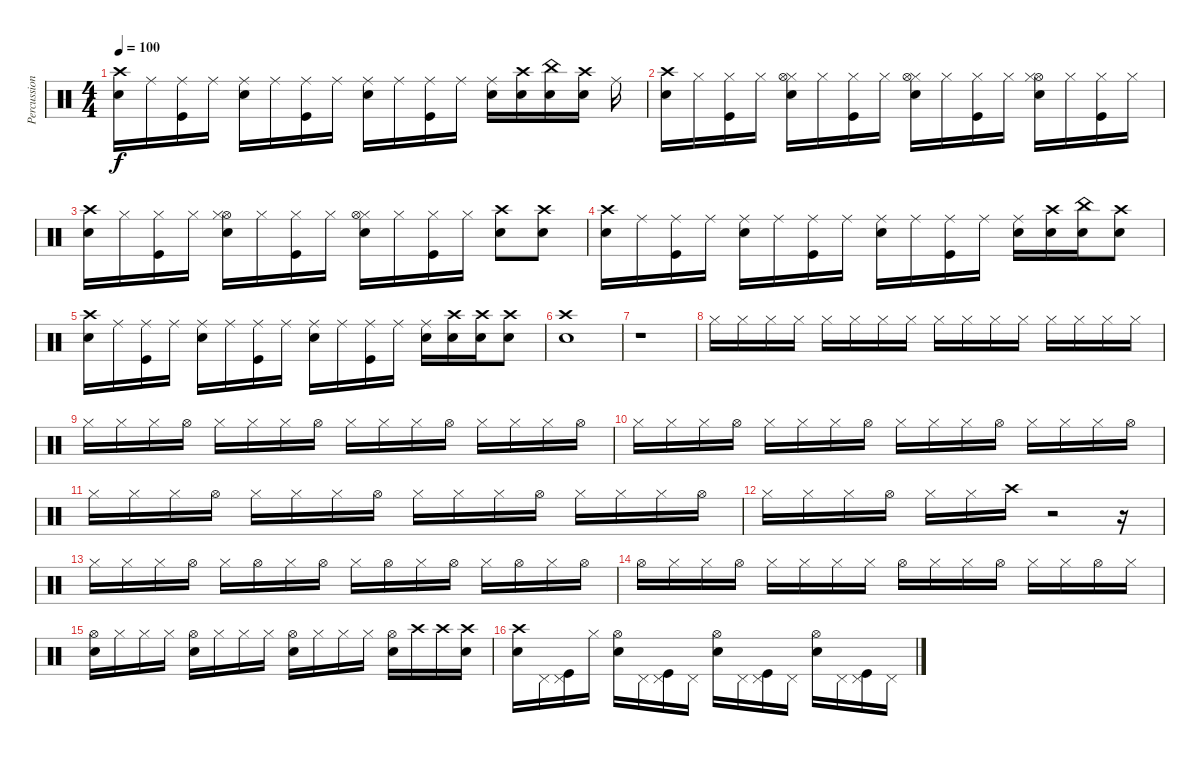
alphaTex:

\track ("Percussion" "Percussion") {instrument percussion}
\staff {score}
\articulation defaults
\ts (4 4)
\tempo 100
\clef neutral
\ks c
("Snare (hit) 2" "Crash high (hit)").16{dy f} "Ride (middle)".16 ("Ride (middle)" "Kick (hit)").16 "Ride (middle)".16 ("Ride (middle)" "Snare (hit) 2").16 "Ride (middle)".16 ("Ride (middle)" "Kick (hit)").16 "Ride (middle)".16 ("Ride (middle)" "Snare (hit) 2").16 "Ride (middle)".16 ("Ride (middle)" "Kick (hit)").16 "Ride (middle)".16 ("Snare (hit) 2" "Ride (middle)").16 ("Crash high (hit)" "Snare (hit) 2").16 ("China (hit)" "Snare (hit) 2").16 ("Snare (hit) 2" "Crash high (hit)").16 "Ride (middle)".16 |
("Crash high (hit)" "Snare (hit) 2").16 "Hi-Hat (closed)".16 ("Hi-Hat (closed)" "Kick (hit)").16 "Hi-Hat (closed)".16 ("Hi-Hat (closed)" "Hi-Hat (open)" "Snare (hit) 2").16 "Hi-Hat (closed)".16 ("Hi-Hat (closed)" "Kick (hit)").16 "Hi-Hat (closed)".16 ("Hi-Hat (closed)" "Snare (hit) 2" "Hi-Hat (open)").16 "Hi-Hat (closed)".16 ("Hi-Hat (closed)" "Kick (hit)").16 "Hi-Hat (closed)".16 ("Snare (hit) 2" "Hi-Hat (open)" "Hi-Hat (closed)").16 "Hi-Hat (closed)".16 ("Hi-Hat (closed)" "Kick (hit)").16 "Hi-Hat (closed)".16 |
("Snare (hit) 2" "Crash high (hit)").16 "Hi-Hat (closed)".16 ("Kick (hit)" "Hi-Hat (closed)").16 "Hi-Hat (closed)".16 ("Snare (hit) 2" "Hi-Hat (open)" "Hi-Hat (closed)").16 "Hi-Hat (closed)".16 ("Kick (hit)" "Hi-Hat (closed)").16 "Hi-Hat (closed)".16 ("Hi-Hat (closed)" "Hi-Hat (open)" "Snare (hit) 2").16 "Hi-Hat (closed)".16 ("Kick (hit)" "Hi-Hat (closed)").16 "Hi-Hat (closed)".16 ("Crash high (hit)" "Snare (hit) 2").8 ("Snare (hit) 2" "Crash high (hit)").8 |
("Crash high (hit)" "Snare (hit) 2").16 "Ride (middle)".16 ("Ride (middle)" "Kick (hit)").16 "Ride (middle)".16 ("Ride (middle)" "Snare (hit) 2").16 "Ride (middle)".16 ("Ride (middle)" "Kick (hit)").16 "Ride (middle)".16 ("Ride (middle)" "Snare (hit) 2").16 "Ride (middle)".16 ("Ride (middle)" "Kick (hit)").16 "Ride (middle)".16 ("Snare (hit) 2" "Ride (middle)").16 ("Snare (hit) 2" "Crash high (hit)").16 ("China (hit)" "Snare (hit) 2").16 ("Snare (hit) 2" "Crash high (hit)").8 |
("Snare (hit) 2" "Crash high (hit)").16 "Ride (middle)".16 ("Kick (hit)" "Ride (middle)").16 "Ride (middle)".16 ("Snare (hit) 2" "Ride (middle)").16 "Ride (middle)".16 ("Kick (hit)" "Ride (middle)").16 "Ride (middle)".16 ("Snare (hit) 2" "Ride (middle)").16 "Ride (middle)".16 ("Kick (hit)" "Ride (middle)").16 "Ride (middle)".16 ("Snare (hit) 2" "Ride (middle)").16 ("Crash high (hit)" "Snare (hit) 2").16 ("Crash high (hit)" "Snare (hit) 2").16 ("Crash high (hit)" "Snare (hit) 2").8 |
("Snare (hit) 2" "Crash high (hit)").1 |
r.1 |
"Hi-Hat (closed)".16 "Hi-Hat (closed)".16 "Hi-Hat (closed)".16 "Hi-Hat (closed)".16 "Hi-Hat (closed)".16 "Hi-Hat (closed)".16 "Hi-Hat (closed)".16 "Hi-Hat (closed)".16 "Hi-Hat (closed)".16 "Hi-Hat (closed)".16 "Hi-Hat (closed)".16 "Hi-Hat (closed)".16 "Hi-Hat (closed)".16 "Hi-Hat (closed)".16 "Hi-Hat (closed)".16 "Hi-Hat (closed)".16 |
"Hi-Hat (closed)".16 "Hi-Hat (closed)".16 "Hi-Hat (closed)".16 "Hi-Hat (open)".16 "Hi-Hat (closed)".16 "Hi-Hat (closed)".16 "Hi-Hat (closed)".16 "Hi-Hat (open)".16 "Hi-Hat (closed)".16 "Hi-Hat (closed)".16 "Hi-Hat (closed)".16 "Hi-Hat (open)".16 "Hi-Hat (closed)".16 "Hi-Hat (closed)".16 "Hi-Hat (closed)".16 "Hi-Hat (open)".16 |
"Hi-Hat (closed)".16 "Hi-Hat (closed)".16 "Hi-Hat (closed)".16 "Hi-Hat (open)".16 "Hi-Hat (closed)".16 "Hi-Hat (closed)".16 "Hi-Hat (closed)".16 "Hi-Hat (open)".16 "Hi-Hat (closed)".16 "Hi-Hat (closed)".16 "Hi-Hat (closed)".16 "Hi-Hat (open)".16 "Hi-Hat (closed)".16 "Hi-Hat (closed)".16 "Hi-Hat (closed)".16 "Hi-Hat (open)".16 |
"Hi-Hat (closed)".16 "Hi-Hat (closed)".16 "Hi-Hat (closed)".16 "Hi-Hat (open)".16 "Hi-Hat (closed)".16 "Hi-Hat (closed)".16 "Hi-Hat (closed)".16 "Hi-Hat (open)".16 "Hi-Hat (closed)".16 "Hi-Hat (closed)".16 "Hi-Hat (closed)".16 "Hi-Hat (open)".16 "Hi-Hat (closed)".16 "Hi-Hat (closed)".16 "Hi-Hat (closed)".16 "Hi-Hat (open)".16 |
"Hi-Hat (closed)".16 "Hi-Hat (closed)".16 "Hi-Hat (closed)".16 "Hi-Hat (open)".16 "Hi-Hat (closed)".16 "Hi-Hat (closed)".16 "Crash high (hit)".16 r.2 r.16 |
"Hi-Hat (closed)".16 "Hi-Hat (closed)".16 "Hi-Hat (closed)".16 "Hi-Hat (open)".16 "Hi-Hat (closed)".16 "Hi-Hat (open)".16 "Hi-Hat (closed)".16 "Hi-Hat (open)".16 "Hi-Hat (closed)".16 "Hi-Hat (open)".16 "Hi-Hat (closed)".16 "Hi-Hat (open)".16 "Hi-Hat (closed)".16 "Hi-Hat (open)".16 "Hi-Hat (closed)".16 "Hi-Hat (open)".16 |
"Hi-Hat (open)".16 "Hi-Hat (closed)".16 "Hi-Hat (closed)".16 "Hi-Hat (open)".16 "Hi-Hat (closed)".16 "Hi-Hat (closed)".16 "Hi-Hat (closed)".16 "Hi-Hat (closed)".16 "Hi-Hat (open)".16 "Hi-Hat (closed)".16 "Hi-Hat (closed)".16 "Hi-Hat (open)".16 "Hi-Hat (closed)".16 "Hi-Hat (closed)".16 "Hi-Hat (open)".16 "Hi-Hat (closed)".16 |
("Hi-Hat (open)" "Snare (hit) 2").16 "Hi-Hat (closed)".16 "Hi-Hat (closed)".16 "Hi-Hat (closed)".16 ("Hi-Hat (open)" "Snare (hit) 2").16 "Hi-Hat (closed)".16 "Hi-Hat (closed)".16 "Hi-Hat (closed)".16 ("Hi-Hat (open)" "Snare (hit) 2").16 "Hi-Hat (closed)".16 "Hi-Hat (closed)".16 "Hi-Hat (closed)".16 ("Hi-Hat (open)" "Snare (hit) 2").16 "Crash high (hit)".16 "Crash high (hit)".16 ("Crash high (hit)" "Snare (hit) 2").16 |
("Snare (hit) 2" "Crash high (hit)").16 "Pedal Hi-Hat (hit)".16 ("Pedal Hi-Hat (hit)" "Kick (hit)").16 "Hi-Hat (closed)".16 ("Hi-Hat (open)" "Snare (hit) 2").16 "Pedal Hi-Hat (hit)".16 ("Pedal Hi-Hat (hit)" "Kick (hit)").16 "Pedal Hi-Hat (hit)".16 ("Hi-Hat (open)" "Snare (hit) 2").16 "Pedal Hi-Hat (hit)".16 ("Pedal Hi-Hat (hit)" "Kick (hit)").16 "Pedal Hi-Hat (hit)".16 ("Hi-Hat (open)" "Snare (hit) 2").16 "Pedal Hi-Hat (hit)".16 ("Pedal Hi-Hat (hit)" "Kick (hit)").16 "Pedal Hi-Hat (hit)".16
